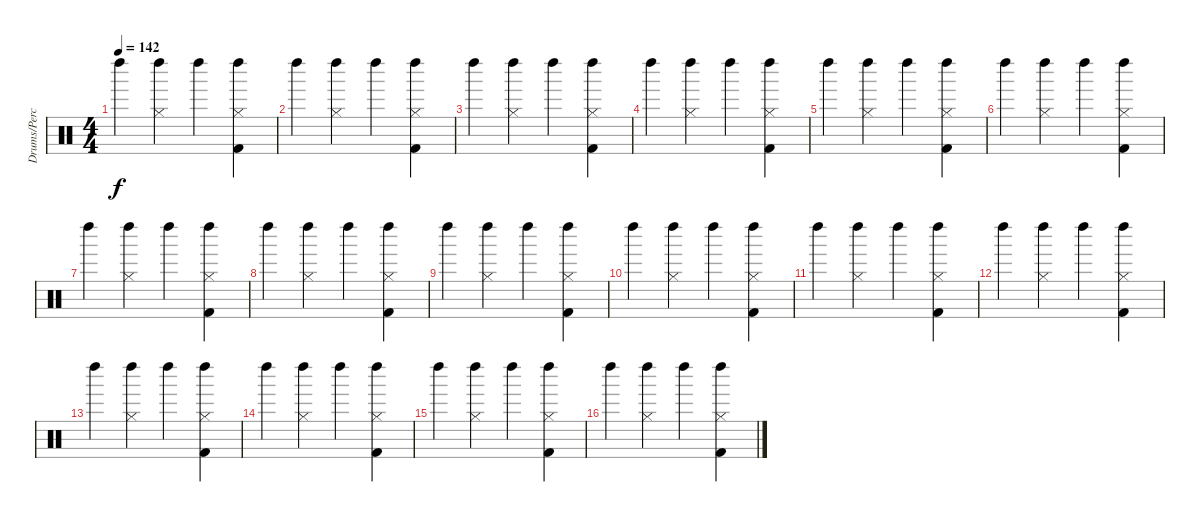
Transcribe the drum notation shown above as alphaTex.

\track ("Drums/Percussion (Bengerg)" "Drums/Perc") {instrument percussion}
\staff {score}
\articulation defaults
\ts (4 4)
\tempo 142
\clef neutral
\ks c "Left Maraca (hit)".4{dy f}
("Hi-Hat (closed)" "Left Maraca (hit)").4 "Left Maraca (hit)".4 ("Hi-Hat (closed)" "Kick (hit) 2" "Left Maraca (hit)").4 |
"Left Maraca (hit)".4 ("Hi-Hat (closed)" "Left Maraca (hit)").4 "Left Maraca (hit)".4 ("Hi-Hat (closed)" "Kick (hit) 2" "Left Maraca (hit)").4 |
"Left Maraca (hit)".4 ("Hi-Hat (closed)" "Left Maraca (hit)").4 "Left Maraca (hit)".4 ("Hi-Hat (closed)" "Kick (hit) 2" "Left Maraca (hit)").4 |
"Left Maraca (hit)".4 ("Hi-Hat (closed)" "Left Maraca (hit)").4 "Left Maraca (hit)".4 ("Hi-Hat (closed)" "Kick (hit) 2" "Left Maraca (hit)").4 |
"Left Maraca (hit)".4 ("Hi-Hat (closed)" "Left Maraca (hit)").4 "Left Maraca (hit)".4 ("Hi-Hat (closed)" "Kick (hit) 2" "Left Maraca (hit)").4 |
"Left Maraca (hit)".4 ("Hi-Hat (closed)" "Left Maraca (hit)").4 "Left Maraca (hit)".4 ("Hi-Hat (closed)" "Kick (hit) 2" "Left Maraca (hit)").4 |
"Left Maraca (hit)".4 ("Hi-Hat (closed)" "Left Maraca (hit)").4 "Left Maraca (hit)".4 ("Hi-Hat (closed)" "Kick (hit) 2" "Left Maraca (hit)").4 |
"Left Maraca (hit)".4 ("Hi-Hat (closed)" "Left Maraca (hit)").4 "Left Maraca (hit)".4 ("Hi-Hat (closed)" "Kick (hit) 2" "Left Maraca (hit)").4 |
"Left Maraca (hit)".4 ("Hi-Hat (closed)" "Left Maraca (hit)").4 "Left Maraca (hit)".4 ("Hi-Hat (closed)" "Kick (hit) 2" "Left Maraca (hit)").4 |
"Left Maraca (hit)".4 ("Hi-Hat (closed)" "Left Maraca (hit)").4 "Left Maraca (hit)".4 ("Hi-Hat (closed)" "Kick (hit) 2" "Left Maraca (hit)").4 |
"Left Maraca (hit)".4 ("Hi-Hat (closed)" "Left Maraca (hit)").4 "Left Maraca (hit)".4 ("Hi-Hat (closed)" "Kick (hit) 2" "Left Maraca (hit)").4 |
"Left Maraca (hit)".4 ("Hi-Hat (closed)" "Left Maraca (hit)").4 "Left Maraca (hit)".4 ("Hi-Hat (closed)" "Kick (hit) 2" "Left Maraca (hit)").4 |
"Left Maraca (hit)".4 ("Hi-Hat (closed)" "Left Maraca (hit)").4 "Left Maraca (hit)".4 ("Hi-Hat (closed)" "Kick (hit) 2" "Left Maraca (hit)").4 |
"Left Maraca (hit)".4 ("Hi-Hat (closed)" "Left Maraca (hit)").4 "Left Maraca (hit)".4 ("Hi-Hat (closed)" "Kick (hit) 2" "Left Maraca (hit)").4 |
"Left Maraca (hit)".4 ("Hi-Hat (closed)" "Left Maraca (hit)").4 "Left Maraca (hit)".4 ("Hi-Hat (closed)" "Kick (hit) 2" "Left Maraca (hit)").4 |
"Left Maraca (hit)".4 ("Hi-Hat (closed)" "Left Maraca (hit)").4 "Left Maraca (hit)".4 ("Hi-Hat (closed)" "Kick (hit) 2" "Left Maraca (hit)").4
